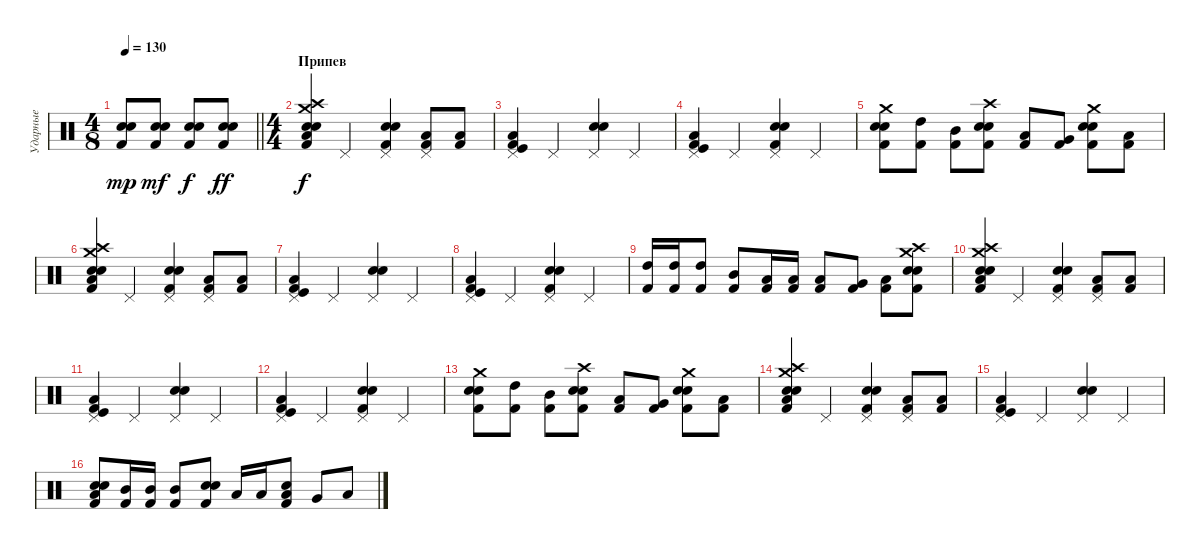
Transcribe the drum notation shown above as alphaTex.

\track ("Ударные" "Ударные") {instrument percussion}
\staff {score}
\articulation defaults
\ts (4 8)
\tempo 130
\clef neutral
\barLineRight lightlight
\ks c
("Kick (hit) 2" "Electric Snare (hit)" "Snare (hit) 2").8{dy mp} ("Kick (hit) 2" "Electric Snare (hit)" "Snare (hit) 2").8{dy mf} ("Kick (hit) 2" "Electric Snare (hit)" "Snare (hit) 2").8{dy f} ("Kick (hit) 2" "Electric Snare (hit)" "Snare (hit) 2").8{dy ff} |
\ts (4 4)
\section ("" "Припев")
("Kick (hit) 2" "Electric Snare (hit)" "Snare (hit) 2" "Crash high (hit)" "Crash medium (hit)" "Low Floor Tom (hit)").4{dy f} "Pedal Hi-Hat (hit)".4 ("Pedal Hi-Hat (hit)" "Kick (hit) 2" "Snare (hit) 2" "Electric Snare (hit)").4 ("Kick (hit) 2" "Pedal Hi-Hat (hit)" "Low Floor Tom (hit)").8 ("Low Floor Tom (hit)" "Kick (hit) 2").8 |
("Kick (hit) 2" "Kick (hit)" "Pedal Hi-Hat (hit)" "Low Floor Tom (hit)").4 "Pedal Hi-Hat (hit)".4 ("Pedal Hi-Hat (hit)" "Snare (hit) 2" "Electric Snare (hit)").4 "Pedal Hi-Hat (hit)".4 |
("Kick (hit) 2" "Kick (hit)" "Pedal Hi-Hat (hit)" "Low Floor Tom (hit)").4 "Pedal Hi-Hat (hit)".4 ("Kick (hit) 2" "Pedal Hi-Hat (hit)" "Snare (hit) 2" "Electric Snare (hit)").4 "Pedal Hi-Hat (hit)".4 |
("Crash medium (hit)" "Electric Snare (hit)" "Snare (hit) 2" "Kick (hit) 2").8 ("Kick (hit) 2" "High Tom (hit)").8 ("Mid Tom (hit)" "Kick (hit) 2").8 ("Crash high (hit)" "Electric Snare (hit)" "Snare (hit) 2" "Kick (hit) 2").8 ("Kick (hit) 2" "Low Tom (hit)").8 ("Kick (hit) 2" "Very Low Tom (hit)").8 ("Crash medium (hit)" "Electric Snare (hit)" "Snare (hit) 2" "Kick (hit) 2").8 ("Kick (hit) 2" "Low Floor Tom (hit)").8 |
("Kick (hit) 2" "Electric Snare (hit)" "Snare (hit) 2" "Crash high (hit)" "Crash medium (hit)" "Low Floor Tom (hit)").4 "Pedal Hi-Hat (hit)".4 ("Pedal Hi-Hat (hit)" "Kick (hit) 2" "Snare (hit) 2" "Electric Snare (hit)").4 ("Kick (hit) 2" "Pedal Hi-Hat (hit)" "Low Floor Tom (hit)").8 ("Low Floor Tom (hit)" "Kick (hit) 2").8 |
("Kick (hit) 2" "Kick (hit)" "Pedal Hi-Hat (hit)" "Low Floor Tom (hit)").4 "Pedal Hi-Hat (hit)".4 ("Pedal Hi-Hat (hit)" "Snare (hit) 2" "Electric Snare (hit)").4 "Pedal Hi-Hat (hit)".4 |
("Kick (hit) 2" "Kick (hit)" "Pedal Hi-Hat (hit)" "Low Floor Tom (hit)").4 "Pedal Hi-Hat (hit)".4 ("Kick (hit) 2" "Pedal Hi-Hat (hit)" "Snare (hit) 2" "Electric Snare (hit)").4 "Pedal Hi-Hat (hit)".4 |
("High Tom (hit)" "Kick (hit) 2").16 ("High Tom (hit)" "Kick (hit) 2").16 ("High Tom (hit)" "Kick (hit) 2").8 ("Mid Tom (hit)" "Kick (hit) 2").8 ("Low Tom (hit)" "Kick (hit) 2").16 ("Low Tom (hit)" "Kick (hit) 2").16 ("Low Tom (hit)" "Kick (hit) 2").8 ("Very Low Tom (hit)" "Kick (hit) 2").8 ("Low Floor Tom (hit)" "Kick (hit) 2").8 ("Crash high (hit)" "Electric Snare (hit)" "Snare (hit) 2" "Kick (hit) 2" "Crash medium (hit)").8 |
("Kick (hit) 2" "Electric Snare (hit)" "Snare (hit) 2" "Crash high (hit)" "Crash medium (hit)" "Low Floor Tom (hit)").4 "Pedal Hi-Hat (hit)".4 ("Pedal Hi-Hat (hit)" "Kick (hit) 2" "Snare (hit) 2" "Electric Snare (hit)").4 ("Kick (hit) 2" "Pedal Hi-Hat (hit)" "Low Floor Tom (hit)").8 ("Low Floor Tom (hit)" "Kick (hit) 2").8 |
("Kick (hit) 2" "Kick (hit)" "Pedal Hi-Hat (hit)" "Low Floor Tom (hit)").4 "Pedal Hi-Hat (hit)".4 ("Pedal Hi-Hat (hit)" "Snare (hit) 2" "Electric Snare (hit)").4 "Pedal Hi-Hat (hit)".4 |
("Kick (hit) 2" "Kick (hit)" "Pedal Hi-Hat (hit)" "Low Floor Tom (hit)").4 "Pedal Hi-Hat (hit)".4 ("Kick (hit) 2" "Pedal Hi-Hat (hit)" "Snare (hit) 2" "Electric Snare (hit)").4 "Pedal Hi-Hat (hit)".4 |
("Crash medium (hit)" "Electric Snare (hit)" "Snare (hit) 2" "Kick (hit) 2").8 ("Kick (hit) 2" "High Tom (hit)").8 ("Mid Tom (hit)" "Kick (hit) 2").8 ("Crash high (hit)" "Electric Snare (hit)" "Snare (hit) 2" "Kick (hit) 2").8 ("Kick (hit) 2" "Low Tom (hit)").8 ("Kick (hit) 2" "Very Low Tom (hit)").8 ("Crash medium (hit)" "Electric Snare (hit)" "Snare (hit) 2" "Kick (hit) 2").8 ("Kick (hit) 2" "Low Floor Tom (hit)").8 |
("Kick (hit) 2" "Electric Snare (hit)" "Snare (hit) 2" "Crash high (hit)" "Crash medium (hit)" "Low Floor Tom (hit)").4 "Pedal Hi-Hat (hit)".4 ("Pedal Hi-Hat (hit)" "Kick (hit) 2" "Snare (hit) 2" "Electric Snare (hit)").4 ("Kick (hit) 2" "Pedal Hi-Hat (hit)" "Low Floor Tom (hit)").8 ("Low Floor Tom (hit)" "Kick (hit) 2").8 |
("Kick (hit) 2" "Kick (hit)" "Pedal Hi-Hat (hit)" "Low Floor Tom (hit)").4 "Pedal Hi-Hat (hit)".4 ("Pedal Hi-Hat (hit)" "Snare (hit) 2" "Electric Snare (hit)").4 "Pedal Hi-Hat (hit)".4 |
("Snare (hit) 2" "Electric Snare (hit)" "Kick (hit) 2" "Low Floor Tom (hit)").8 ("Kick (hit) 2" "Mid Tom (hit)").16 ("Kick (hit) 2" "Mid Tom (hit)").16 ("Kick (hit) 2" "Mid Tom (hit)").8 ("Snare (hit) 2" "Electric Snare (hit)" "Kick (hit) 2").8 "Low Tom (hit)".16 "Low Tom (hit)".16 ("Low Tom (hit)" "Kick (hit) 2" "Electric Snare (hit)").8 "Very Low Tom (hit)".8 "Low Floor Tom (hit)".8
